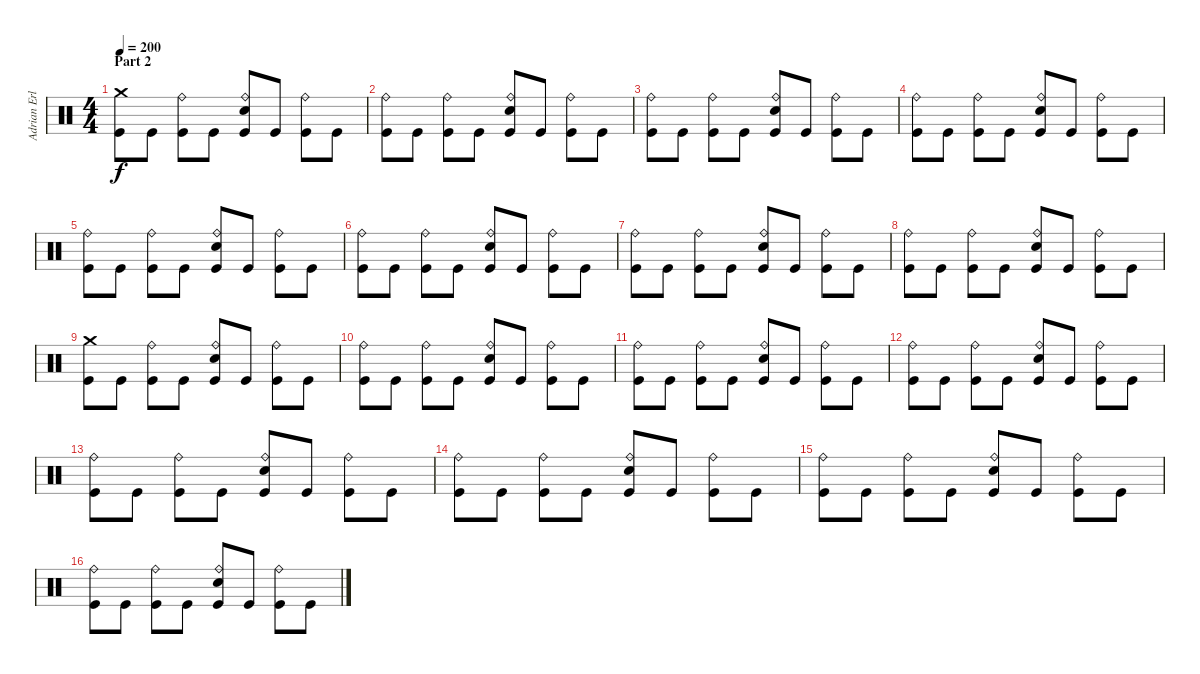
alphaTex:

\track ("Adrian Erlandsson" "Adrian Erl") {instrument percussion}
\staff {score}
\articulation defaults
\ts (4 4)
\section ("" "Part 2")
\tempo 200
\clef neutral
\ks c
("Crash medium (hit)" "Kick (hit)").8{dy f} "Kick (hit)".8 ("Ride (bell)" "Kick (hit)").8 "Kick (hit)".8 ("Ride (bell)" "Electric Snare (hit)" "Kick (hit)").8 "Kick (hit)".8 ("Ride (bell)" "Kick (hit)").8 "Kick (hit)".8 |
("Ride (bell)" "Kick (hit)").8 "Kick (hit)".8 ("Ride (bell)" "Kick (hit)").8 "Kick (hit)".8 ("Ride (bell)" "Electric Snare (hit)" "Kick (hit)").8 "Kick (hit)".8 ("Ride (bell)" "Kick (hit)").8 "Kick (hit)".8 |
("Ride (bell)" "Kick (hit)").8 "Kick (hit)".8 ("Ride (bell)" "Kick (hit)").8 "Kick (hit)".8 ("Ride (bell)" "Electric Snare (hit)" "Kick (hit)").8 "Kick (hit)".8 ("Ride (bell)" "Kick (hit)").8 "Kick (hit)".8 |
("Ride (bell)" "Kick (hit)").8 "Kick (hit)".8 ("Ride (bell)" "Kick (hit)").8 "Kick (hit)".8 ("Ride (bell)" "Electric Snare (hit)" "Kick (hit)").8 "Kick (hit)".8 ("Ride (bell)" "Kick (hit)").8 "Kick (hit)".8 |
("Ride (bell)" "Kick (hit)").8 "Kick (hit)".8 ("Ride (bell)" "Kick (hit)").8 "Kick (hit)".8 ("Ride (bell)" "Electric Snare (hit)" "Kick (hit)").8 "Kick (hit)".8 ("Ride (bell)" "Kick (hit)").8 "Kick (hit)".8 |
("Ride (bell)" "Kick (hit)").8 "Kick (hit)".8 ("Ride (bell)" "Kick (hit)").8 "Kick (hit)".8 ("Ride (bell)" "Electric Snare (hit)" "Kick (hit)").8 "Kick (hit)".8 ("Ride (bell)" "Kick (hit)").8 "Kick (hit)".8 |
("Ride (bell)" "Kick (hit)").8 "Kick (hit)".8 ("Ride (bell)" "Kick (hit)").8 "Kick (hit)".8 ("Ride (bell)" "Electric Snare (hit)" "Kick (hit)").8 "Kick (hit)".8 ("Ride (bell)" "Kick (hit)").8 "Kick (hit)".8 |
("Ride (bell)" "Kick (hit)").8 "Kick (hit)".8 ("Ride (bell)" "Kick (hit)").8 "Kick (hit)".8 ("Ride (bell)" "Electric Snare (hit)" "Kick (hit)").8 "Kick (hit)".8 ("Ride (bell)" "Kick (hit)").8 "Kick (hit)".8 |
("Crash medium (hit)" "Kick (hit)").8 "Kick (hit)".8 ("Ride (bell)" "Kick (hit)").8 "Kick (hit)".8 ("Ride (bell)" "Electric Snare (hit)" "Kick (hit)").8 "Kick (hit)".8 ("Ride (bell)" "Kick (hit)").8 "Kick (hit)".8 |
("Ride (bell)" "Kick (hit)").8 "Kick (hit)".8 ("Ride (bell)" "Kick (hit)").8 "Kick (hit)".8 ("Ride (bell)" "Electric Snare (hit)" "Kick (hit)").8 "Kick (hit)".8 ("Ride (bell)" "Kick (hit)").8 "Kick (hit)".8 |
("Ride (bell)" "Kick (hit)").8 "Kick (hit)".8 ("Ride (bell)" "Kick (hit)").8 "Kick (hit)".8 ("Ride (bell)" "Electric Snare (hit)" "Kick (hit)").8 "Kick (hit)".8 ("Ride (bell)" "Kick (hit)").8 "Kick (hit)".8 |
("Ride (bell)" "Kick (hit)").8 "Kick (hit)".8 ("Ride (bell)" "Kick (hit)").8 "Kick (hit)".8 ("Ride (bell)" "Electric Snare (hit)" "Kick (hit)").8 "Kick (hit)".8 ("Ride (bell)" "Kick (hit)").8 "Kick (hit)".8 |
("Ride (bell)" "Kick (hit)").8 "Kick (hit)".8 ("Ride (bell)" "Kick (hit)").8 "Kick (hit)".8 ("Ride (bell)" "Electric Snare (hit)" "Kick (hit)").8 "Kick (hit)".8 ("Ride (bell)" "Kick (hit)").8 "Kick (hit)".8 |
("Ride (bell)" "Kick (hit)").8 "Kick (hit)".8 ("Ride (bell)" "Kick (hit)").8 "Kick (hit)".8 ("Ride (bell)" "Electric Snare (hit)" "Kick (hit)").8 "Kick (hit)".8 ("Ride (bell)" "Kick (hit)").8 "Kick (hit)".8 |
("Ride (bell)" "Kick (hit)").8 "Kick (hit)".8 ("Ride (bell)" "Kick (hit)").8 "Kick (hit)".8 ("Ride (bell)" "Electric Snare (hit)" "Kick (hit)").8 "Kick (hit)".8 ("Ride (bell)" "Kick (hit)").8 "Kick (hit)".8 |
("Ride (bell)" "Kick (hit)").8 "Kick (hit)".8 ("Ride (bell)" "Kick (hit)").8 "Kick (hit)".8 ("Ride (bell)" "Electric Snare (hit)" "Kick (hit)").8 "Kick (hit)".8 ("Ride (bell)" "Kick (hit)").8 "Kick (hit)".8
